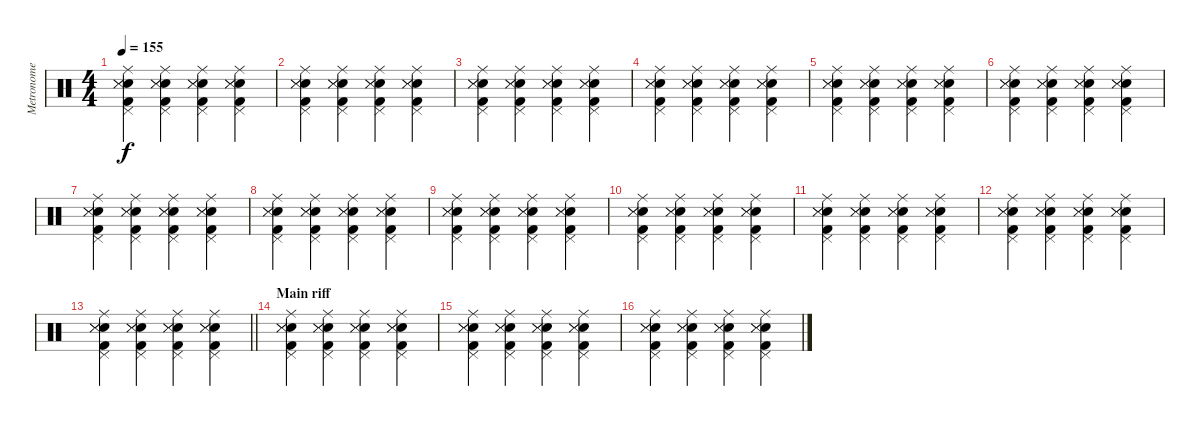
\track ("Metronome" "Metronome") {mute instrument percussion}
\staff {score}
\articulation defaults
\ts (4 4)
\tempo 155
\clef neutral
\ks c
("Ride (middle)" "Pedal Hi-Hat (hit)" "Electric Snare (hit)" "Snare (side stick) 3" "Metronome (hit)" "Kick (hit) 2").4{dy f} ("Ride (middle)" "Pedal Hi-Hat (hit)" "Electric Snare (hit)" "Snare (side stick) 3" "Metronome (hit)" "Kick (hit) 2").4 ("Ride (middle)" "Pedal Hi-Hat (hit)" "Electric Snare (hit)" "Snare (side stick) 3" "Metronome (hit)" "Kick (hit) 2").4 ("Ride (middle)" "Pedal Hi-Hat (hit)" "Electric Snare (hit)" "Snare (side stick) 3" "Metronome (hit)" "Kick (hit) 2").4 |
("Ride (middle)" "Pedal Hi-Hat (hit)" "Electric Snare (hit)" "Snare (side stick) 3" "Metronome (hit)" "Kick (hit) 2").4 ("Ride (middle)" "Pedal Hi-Hat (hit)" "Electric Snare (hit)" "Snare (side stick) 3" "Metronome (hit)" "Kick (hit) 2").4 ("Ride (middle)" "Pedal Hi-Hat (hit)" "Electric Snare (hit)" "Snare (side stick) 3" "Metronome (hit)" "Kick (hit) 2").4 ("Ride (middle)" "Pedal Hi-Hat (hit)" "Electric Snare (hit)" "Snare (side stick) 3" "Metronome (hit)" "Kick (hit) 2").4 |
("Ride (middle)" "Pedal Hi-Hat (hit)" "Electric Snare (hit)" "Snare (side stick) 3" "Metronome (hit)" "Kick (hit) 2").4 ("Ride (middle)" "Pedal Hi-Hat (hit)" "Electric Snare (hit)" "Snare (side stick) 3" "Metronome (hit)" "Kick (hit) 2").4 ("Ride (middle)" "Pedal Hi-Hat (hit)" "Electric Snare (hit)" "Snare (side stick) 3" "Metronome (hit)" "Kick (hit) 2").4 ("Ride (middle)" "Pedal Hi-Hat (hit)" "Electric Snare (hit)" "Snare (side stick) 3" "Metronome (hit)" "Kick (hit) 2").4 |
("Ride (middle)" "Pedal Hi-Hat (hit)" "Electric Snare (hit)" "Snare (side stick) 3" "Metronome (hit)" "Kick (hit) 2").4 ("Ride (middle)" "Pedal Hi-Hat (hit)" "Electric Snare (hit)" "Snare (side stick) 3" "Metronome (hit)" "Kick (hit) 2").4 ("Ride (middle)" "Pedal Hi-Hat (hit)" "Electric Snare (hit)" "Snare (side stick) 3" "Metronome (hit)" "Kick (hit) 2").4 ("Ride (middle)" "Pedal Hi-Hat (hit)" "Electric Snare (hit)" "Snare (side stick) 3" "Metronome (hit)" "Kick (hit) 2").4 |
("Ride (middle)" "Pedal Hi-Hat (hit)" "Electric Snare (hit)" "Snare (side stick) 3" "Metronome (hit)" "Kick (hit) 2").4 ("Ride (middle)" "Pedal Hi-Hat (hit)" "Electric Snare (hit)" "Snare (side stick) 3" "Metronome (hit)" "Kick (hit) 2").4 ("Ride (middle)" "Pedal Hi-Hat (hit)" "Electric Snare (hit)" "Snare (side stick) 3" "Metronome (hit)" "Kick (hit) 2").4 ("Ride (middle)" "Pedal Hi-Hat (hit)" "Electric Snare (hit)" "Snare (side stick) 3" "Metronome (hit)" "Kick (hit) 2").4 |
("Ride (middle)" "Pedal Hi-Hat (hit)" "Electric Snare (hit)" "Snare (side stick) 3" "Metronome (hit)" "Kick (hit) 2").4 ("Ride (middle)" "Pedal Hi-Hat (hit)" "Electric Snare (hit)" "Snare (side stick) 3" "Metronome (hit)" "Kick (hit) 2").4 ("Ride (middle)" "Pedal Hi-Hat (hit)" "Electric Snare (hit)" "Snare (side stick) 3" "Metronome (hit)" "Kick (hit) 2").4 ("Ride (middle)" "Pedal Hi-Hat (hit)" "Electric Snare (hit)" "Snare (side stick) 3" "Metronome (hit)" "Kick (hit) 2").4 |
("Ride (middle)" "Pedal Hi-Hat (hit)" "Electric Snare (hit)" "Snare (side stick) 3" "Metronome (hit)" "Kick (hit) 2").4 ("Ride (middle)" "Pedal Hi-Hat (hit)" "Electric Snare (hit)" "Snare (side stick) 3" "Metronome (hit)" "Kick (hit) 2").4 ("Ride (middle)" "Pedal Hi-Hat (hit)" "Electric Snare (hit)" "Snare (side stick) 3" "Metronome (hit)" "Kick (hit) 2").4 ("Ride (middle)" "Pedal Hi-Hat (hit)" "Electric Snare (hit)" "Snare (side stick) 3" "Metronome (hit)" "Kick (hit) 2").4 |
("Ride (middle)" "Pedal Hi-Hat (hit)" "Electric Snare (hit)" "Snare (side stick) 3" "Metronome (hit)" "Kick (hit) 2").4 ("Ride (middle)" "Pedal Hi-Hat (hit)" "Electric Snare (hit)" "Snare (side stick) 3" "Metronome (hit)" "Kick (hit) 2").4 ("Ride (middle)" "Pedal Hi-Hat (hit)" "Electric Snare (hit)" "Snare (side stick) 3" "Metronome (hit)" "Kick (hit) 2").4 ("Ride (middle)" "Pedal Hi-Hat (hit)" "Electric Snare (hit)" "Snare (side stick) 3" "Metronome (hit)" "Kick (hit) 2").4 |
("Ride (middle)" "Pedal Hi-Hat (hit)" "Electric Snare (hit)" "Snare (side stick) 3" "Metronome (hit)" "Kick (hit) 2").4 ("Ride (middle)" "Pedal Hi-Hat (hit)" "Electric Snare (hit)" "Snare (side stick) 3" "Metronome (hit)" "Kick (hit) 2").4 ("Ride (middle)" "Pedal Hi-Hat (hit)" "Electric Snare (hit)" "Snare (side stick) 3" "Metronome (hit)" "Kick (hit) 2").4 ("Ride (middle)" "Pedal Hi-Hat (hit)" "Electric Snare (hit)" "Snare (side stick) 3" "Metronome (hit)" "Kick (hit) 2").4 |
("Ride (middle)" "Pedal Hi-Hat (hit)" "Electric Snare (hit)" "Snare (side stick) 3" "Metronome (hit)" "Kick (hit) 2").4 ("Ride (middle)" "Pedal Hi-Hat (hit)" "Electric Snare (hit)" "Snare (side stick) 3" "Metronome (hit)" "Kick (hit) 2").4 ("Ride (middle)" "Pedal Hi-Hat (hit)" "Electric Snare (hit)" "Snare (side stick) 3" "Metronome (hit)" "Kick (hit) 2").4 ("Ride (middle)" "Pedal Hi-Hat (hit)" "Electric Snare (hit)" "Snare (side stick) 3" "Metronome (hit)" "Kick (hit) 2").4 |
("Ride (middle)" "Pedal Hi-Hat (hit)" "Electric Snare (hit)" "Snare (side stick) 3" "Metronome (hit)" "Kick (hit) 2").4 ("Ride (middle)" "Pedal Hi-Hat (hit)" "Electric Snare (hit)" "Snare (side stick) 3" "Metronome (hit)" "Kick (hit) 2").4 ("Ride (middle)" "Pedal Hi-Hat (hit)" "Electric Snare (hit)" "Snare (side stick) 3" "Metronome (hit)" "Kick (hit) 2").4 ("Ride (middle)" "Pedal Hi-Hat (hit)" "Electric Snare (hit)" "Snare (side stick) 3" "Metronome (hit)" "Kick (hit) 2").4 |
("Ride (middle)" "Pedal Hi-Hat (hit)" "Electric Snare (hit)" "Snare (side stick) 3" "Metronome (hit)" "Kick (hit) 2").4 ("Ride (middle)" "Pedal Hi-Hat (hit)" "Electric Snare (hit)" "Snare (side stick) 3" "Metronome (hit)" "Kick (hit) 2").4 ("Ride (middle)" "Pedal Hi-Hat (hit)" "Electric Snare (hit)" "Snare (side stick) 3" "Metronome (hit)" "Kick (hit) 2").4 ("Ride (middle)" "Pedal Hi-Hat (hit)" "Electric Snare (hit)" "Snare (side stick) 3" "Metronome (hit)" "Kick (hit) 2").4 |
\barLineRight lightlight
("Ride (middle)" "Pedal Hi-Hat (hit)" "Electric Snare (hit)" "Snare (side stick) 3" "Metronome (hit)" "Kick (hit) 2").4 ("Ride (middle)" "Pedal Hi-Hat (hit)" "Electric Snare (hit)" "Snare (side stick) 3" "Metronome (hit)" "Kick (hit) 2").4 ("Ride (middle)" "Pedal Hi-Hat (hit)" "Electric Snare (hit)" "Snare (side stick) 3" "Metronome (hit)" "Kick (hit) 2").4 ("Ride (middle)" "Pedal Hi-Hat (hit)" "Electric Snare (hit)" "Snare (side stick) 3" "Metronome (hit)" "Kick (hit) 2").4 |
\section ("" "Main riff")
("Ride (middle)" "Pedal Hi-Hat (hit)" "Electric Snare (hit)" "Snare (side stick) 3" "Metronome (hit)" "Kick (hit) 2").4 ("Ride (middle)" "Pedal Hi-Hat (hit)" "Electric Snare (hit)" "Snare (side stick) 3" "Metronome (hit)" "Kick (hit) 2").4 ("Ride (middle)" "Pedal Hi-Hat (hit)" "Electric Snare (hit)" "Snare (side stick) 3" "Metronome (hit)" "Kick (hit) 2").4 ("Ride (middle)" "Pedal Hi-Hat (hit)" "Electric Snare (hit)" "Snare (side stick) 3" "Metronome (hit)" "Kick (hit) 2").4 |
("Ride (middle)" "Pedal Hi-Hat (hit)" "Electric Snare (hit)" "Snare (side stick) 3" "Metronome (hit)" "Kick (hit) 2").4 ("Ride (middle)" "Pedal Hi-Hat (hit)" "Electric Snare (hit)" "Snare (side stick) 3" "Metronome (hit)" "Kick (hit) 2").4 ("Ride (middle)" "Pedal Hi-Hat (hit)" "Electric Snare (hit)" "Snare (side stick) 3" "Metronome (hit)" "Kick (hit) 2").4 ("Ride (middle)" "Pedal Hi-Hat (hit)" "Electric Snare (hit)" "Snare (side stick) 3" "Metronome (hit)" "Kick (hit) 2").4 |
("Ride (middle)" "Pedal Hi-Hat (hit)" "Electric Snare (hit)" "Snare (side stick) 3" "Metronome (hit)" "Kick (hit) 2").4 ("Ride (middle)" "Pedal Hi-Hat (hit)" "Electric Snare (hit)" "Snare (side stick) 3" "Metronome (hit)" "Kick (hit) 2").4 ("Ride (middle)" "Pedal Hi-Hat (hit)" "Electric Snare (hit)" "Snare (side stick) 3" "Metronome (hit)" "Kick (hit) 2").4 ("Ride (middle)" "Pedal Hi-Hat (hit)" "Electric Snare (hit)" "Snare (side stick) 3" "Metronome (hit)" "Kick (hit) 2").4
